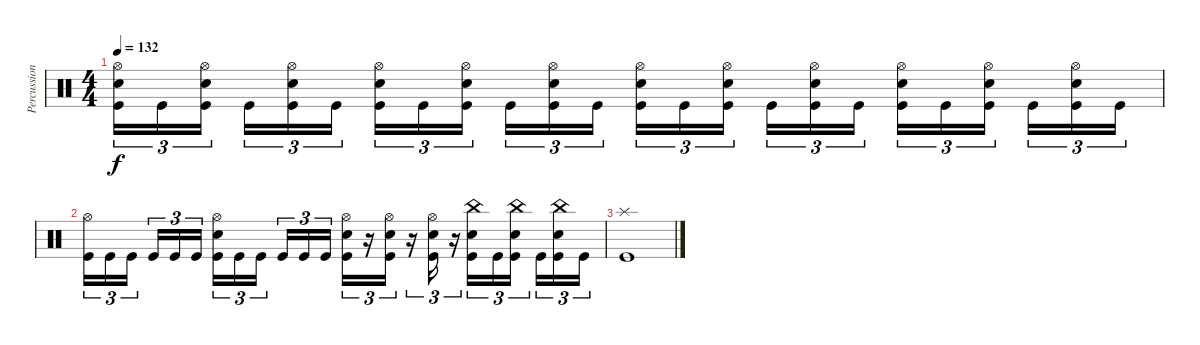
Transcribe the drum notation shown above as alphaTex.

\track ("Percussion" "Percussion") {instrument percussion}
\staff {score}
\articulation defaults
\ts (4 4)
\tempo 132
\clef neutral
\ks c
("Electric Snare (hit)" "Kick (hit)" "Hi-Hat (open)").16{tu (3 2) dy f} "Kick (hit)".16{tu (3 2)} ("Electric Snare (hit)" "Kick (hit)" "Hi-Hat (open)").16{tu (3 2) beam splitsecondary} "Kick (hit)".16{tu (3 2)} ("Electric Snare (hit)" "Kick (hit)" "Hi-Hat (open)").16{tu (3 2)} "Kick (hit)".16{tu (3 2)} ("Electric Snare (hit)" "Kick (hit)" "Hi-Hat (open)").16{tu (3 2)} "Kick (hit)".16{tu (3 2)} ("Electric Snare (hit)" "Kick (hit)" "Hi-Hat (open)").16{tu (3 2) beam splitsecondary} "Kick (hit)".16{tu (3 2)} ("Electric Snare (hit)" "Kick (hit)" "Hi-Hat (open)").16{tu (3 2)} "Kick (hit)".16{tu (3 2)} ("Electric Snare (hit)" "Kick (hit)" "Hi-Hat (open)").16{tu (3 2)} "Kick (hit)".16{tu (3 2)} ("Electric Snare (hit)" "Kick (hit)" "Hi-Hat (open)").16{tu (3 2) beam splitsecondary} "Kick (hit)".16{tu (3 2)} ("Electric Snare (hit)" "Kick (hit)" "Hi-Hat (open)").16{tu (3 2)} "Kick (hit)".16{tu (3 2)} ("Electric Snare (hit)" "Kick (hit)" "Hi-Hat (open)").16{tu (3 2)} "Kick (hit)".16{tu (3 2)} ("Electric Snare (hit)" "Kick (hit)" "Hi-Hat (open)").16{tu (3 2) beam splitsecondary} "Kick (hit)".16{tu (3 2)} ("Electric Snare (hit)" "Kick (hit)" "Hi-Hat (open)").16{tu (3 2)} "Kick (hit)".16{tu (3 2)} |
("Kick (hit)" "Hi-Hat (open)").16{tu (3 2)} "Kick (hit)".16{tu (3 2)} "Kick (hit)".16{tu (3 2) beam splitsecondary} "Kick (hit)".16{tu (3 2)} "Kick (hit)".16{tu (3 2)} "Kick (hit)".16{tu (3 2)} ("Electric Snare (hit)" "Kick (hit)" "Hi-Hat (open)").16{tu (3 2)} "Kick (hit)".16{tu (3 2)} "Kick (hit)".16{tu (3 2) beam splitsecondary} "Kick (hit)".16{tu (3 2)} "Kick (hit)".16{tu (3 2)} "Kick (hit)".16{tu (3 2)} ("Electric Snare (hit)" "Kick (hit)" "Hi-Hat (open)").16{tu (3 2)} r.16{tu (3 2)} ("Electric Snare (hit)" "Kick (hit)" "Hi-Hat (open)").16{tu (3 2)} r.16{tu (3 2)} ("Electric Snare (hit)" "Kick (hit)" "Hi-Hat (open)").16{tu (3 2)} r.16{tu (3 2)} ("Electric Snare (hit)" "Kick (hit)" "China (hit)").16{tu (3 2)} "Kick (hit)".16{tu (3 2)} ("Electric Snare (hit)" "Kick (hit)" "China (hit)").16{tu (3 2) beam splitsecondary} "Kick (hit)".16{tu (3 2)} ("Electric Snare (hit)" "Kick (hit)" "China (hit)").16{tu (3 2)} "Kick (hit)".16{tu (3 2)} |
("Splash (hit)" "Kick (hit)").1
